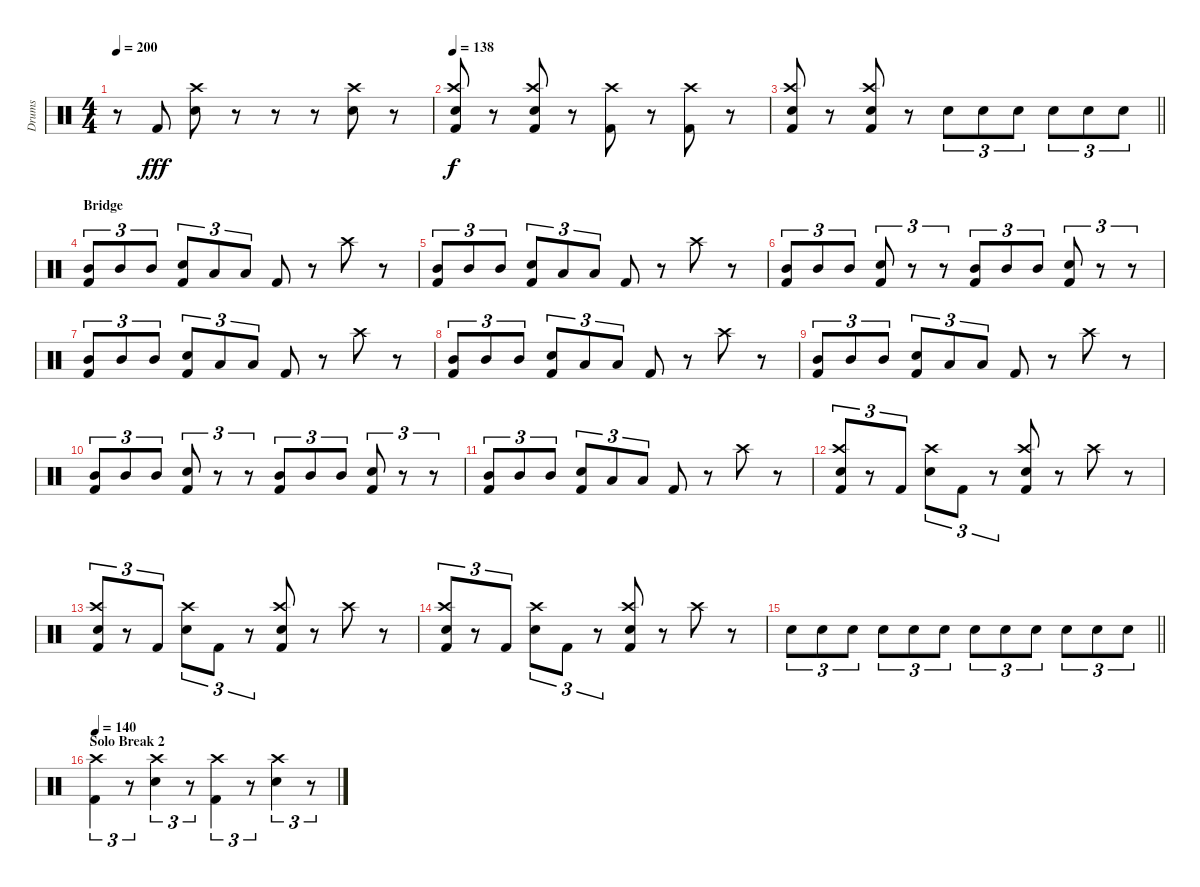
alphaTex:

\track ("Drums" "Drums") {instrument percussion}
\staff {score}
\articulation defaults
\ts (4 4)
\tempo 200
\clef neutral
\ks c
r.8{dy fff} "Kick (hit) 2".8 ("Crash high (hit)" "Snare (hit) 2").8 r.8 r.8 r.8 ("Crash high (hit)" "Snare (hit) 2").8 r.8 |
\tempo 138
("Crash high (hit)" "Snare (hit) 2" "Kick (hit) 2").8{dy f} r.8 ("Crash high (hit)" "Snare (hit) 2" "Kick (hit) 2").8 r.8 ("Crash high (hit)" "Kick (hit) 2").8 r.8 ("Crash high (hit)" "Kick (hit) 2").8 r.8 |
\barLineRight lightlight
("Crash high (hit)" "Snare (hit) 2" "Kick (hit) 2").8 r.8 ("Crash high (hit)" "Snare (hit) 2" "Kick (hit) 2").8 r.8 "Snare (hit) 2".8{tu (3 2)} "Snare (hit) 2".8{tu (3 2)} "Snare (hit) 2".8{tu (3 2)} "Snare (hit) 2".8{tu (3 2)} "Snare (hit) 2".8{tu (3 2)} "Snare (hit) 2".8{tu (3 2)} |
\section ("" "Bridge")
("Mid Tom (hit)" "Kick (hit) 2").8{tu (3 2)} "Mid Tom (hit)".8{tu (3 2)} "Mid Tom (hit)".8{tu (3 2)} ("Snare (hit) 2" "Kick (hit) 2").8{tu (3 2)} "Low Tom (hit)".8{tu (3 2)} "Low Tom (hit)".8{tu (3 2)} "Kick (hit) 2".8 r.8 "Crash high (hit)".8 r.8 |
("Mid Tom (hit)" "Kick (hit) 2").8{tu (3 2)} "Mid Tom (hit)".8{tu (3 2)} "Mid Tom (hit)".8{tu (3 2)} ("Snare (hit) 2" "Kick (hit) 2").8{tu (3 2)} "Low Tom (hit)".8{tu (3 2)} "Low Tom (hit)".8{tu (3 2)} "Kick (hit) 2".8 r.8 "Crash high (hit)".8 r.8 |
("Mid Tom (hit)" "Kick (hit) 2").8{tu (3 2)} "Mid Tom (hit)".8{tu (3 2)} "Mid Tom (hit)".8{tu (3 2)} ("Snare (hit) 2" "Kick (hit) 2").8{tu (3 2)} r.8{tu (3 2)} r.8{tu (3 2)} ("Mid Tom (hit)" "Kick (hit) 2").8{tu (3 2)} "Mid Tom (hit)".8{tu (3 2)} "Mid Tom (hit)".8{tu (3 2)} ("Snare (hit) 2" "Kick (hit) 2").8{tu (3 2)} r.8{tu (3 2)} r.8{tu (3 2)} |
("Mid Tom (hit)" "Kick (hit) 2").8{tu (3 2)} "Mid Tom (hit)".8{tu (3 2)} "Mid Tom (hit)".8{tu (3 2)} ("Snare (hit) 2" "Kick (hit) 2").8{tu (3 2)} "Low Tom (hit)".8{tu (3 2)} "Low Tom (hit)".8{tu (3 2)} "Kick (hit) 2".8 r.8 "Crash high (hit)".8 r.8 |
("Mid Tom (hit)" "Kick (hit) 2").8{tu (3 2)} "Mid Tom (hit)".8{tu (3 2)} "Mid Tom (hit)".8{tu (3 2)} ("Snare (hit) 2" "Kick (hit) 2").8{tu (3 2)} "Low Tom (hit)".8{tu (3 2)} "Low Tom (hit)".8{tu (3 2)} "Kick (hit) 2".8 r.8 "Crash high (hit)".8 r.8 |
("Mid Tom (hit)" "Kick (hit) 2").8{tu (3 2)} "Mid Tom (hit)".8{tu (3 2)} "Mid Tom (hit)".8{tu (3 2)} ("Snare (hit) 2" "Kick (hit) 2").8{tu (3 2)} "Low Tom (hit)".8{tu (3 2)} "Low Tom (hit)".8{tu (3 2)} "Kick (hit) 2".8 r.8 "Crash high (hit)".8 r.8 |
("Mid Tom (hit)" "Kick (hit) 2").8{tu (3 2)} "Mid Tom (hit)".8{tu (3 2)} "Mid Tom (hit)".8{tu (3 2)} ("Snare (hit) 2" "Kick (hit) 2").8{tu (3 2)} r.8{tu (3 2)} r.8{tu (3 2)} ("Mid Tom (hit)" "Kick (hit) 2").8{tu (3 2)} "Mid Tom (hit)".8{tu (3 2)} "Mid Tom (hit)".8{tu (3 2)} ("Snare (hit) 2" "Kick (hit) 2").8{tu (3 2)} r.8{tu (3 2)} r.8{tu (3 2)} |
("Mid Tom (hit)" "Kick (hit) 2").8{tu (3 2)} "Mid Tom (hit)".8{tu (3 2)} "Mid Tom (hit)".8{tu (3 2)} ("Snare (hit) 2" "Kick (hit) 2").8{tu (3 2)} "Low Tom (hit)".8{tu (3 2)} "Low Tom (hit)".8{tu (3 2)} "Kick (hit) 2".8 r.8 "Crash high (hit)".8 r.8 |
("Crash high (hit)" "Snare (hit) 2" "Kick (hit) 2").8{tu (3 2)} r.8{tu (3 2)} "Kick (hit) 2".8{tu (3 2)} ("Crash high (hit)" "Snare (hit) 2").8{tu (3 2)} "Kick (hit) 2".8{tu (3 2)} r.8{tu (3 2)} ("Crash high (hit)" "Snare (hit) 2" "Kick (hit) 2").8 r.8 "Crash high (hit)".8 r.8 |
("Crash high (hit)" "Snare (hit) 2" "Kick (hit) 2").8{tu (3 2)} r.8{tu (3 2)} "Kick (hit) 2".8{tu (3 2)} ("Crash high (hit)" "Snare (hit) 2").8{tu (3 2)} "Kick (hit) 2".8{tu (3 2)} r.8{tu (3 2)} ("Crash high (hit)" "Snare (hit) 2" "Kick (hit) 2").8 r.8 "Crash high (hit)".8 r.8 |
("Crash high (hit)" "Snare (hit) 2" "Kick (hit) 2").8{tu (3 2)} r.8{tu (3 2)} "Kick (hit) 2".8{tu (3 2)} ("Crash high (hit)" "Snare (hit) 2").8{tu (3 2)} "Kick (hit) 2".8{tu (3 2)} r.8{tu (3 2)} ("Crash high (hit)" "Snare (hit) 2" "Kick (hit) 2").8 r.8 "Crash high (hit)".8 r.8 |
\barLineRight lightlight "Snare (hit) 2".8{tu (3 2)} "Snare (hit) 2".8{tu (3 2)} "Snare (hit) 2".8{tu (3 2)} "Snare (hit) 2".8{tu (3 2)} "Snare (hit) 2".8{tu (3 2)} "Snare (hit) 2".8{tu (3 2)} "Snare (hit) 2".8{tu (3 2)} "Snare (hit) 2".8{tu (3 2)} "Snare (hit) 2".8{tu (3 2)} "Snare (hit) 2".8{tu (3 2)} "Snare (hit) 2".8{tu (3 2)} "Snare (hit) 2".8{tu (3 2)}
|
\section ("" "Solo Break 2")
\tempo 140
("Crash high (hit)" "Kick (hit) 2").4{tu (3 2)} r.8{tu (3 2)} ("Crash high (hit)" "Snare (hit) 2").4{tu (3 2)} r.8{tu (3 2)} ("Crash high (hit)" "Kick (hit) 2").4{tu (3 2)} r.8{tu (3 2)} ("Crash high (hit)" "Snare (hit) 2").4{tu (3 2)} r.8{tu (3 2)}
